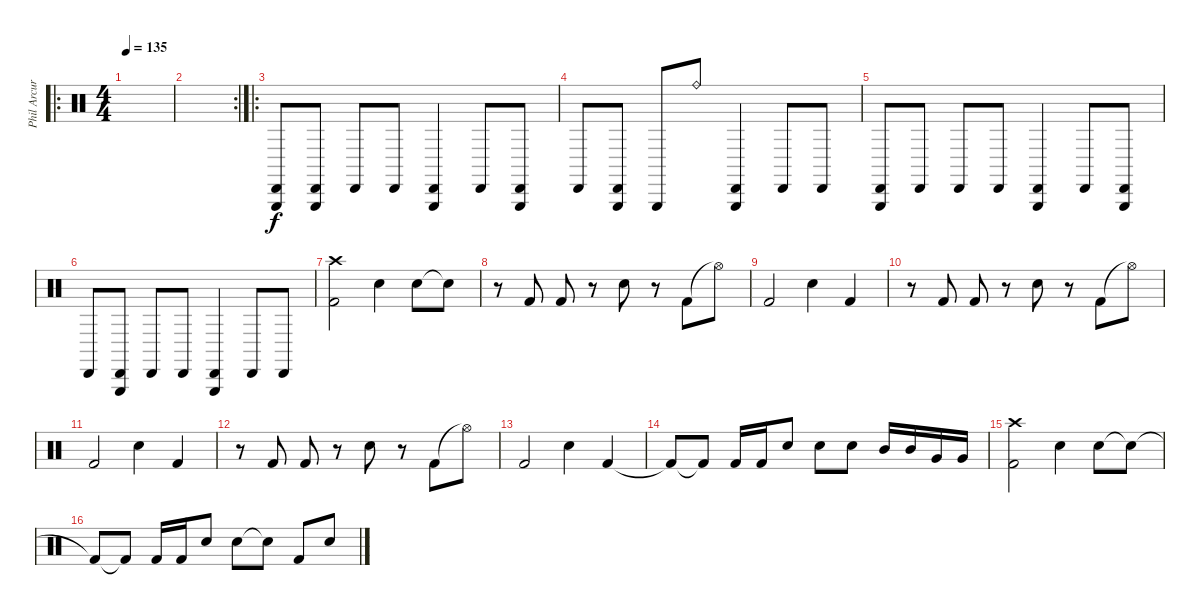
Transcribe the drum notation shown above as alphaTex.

\track ("Phil Arcuri drums" "Phil Arcur") {instrument percussion}
\staff {score}
\articulation defaults
\ro
\ts (4 4)
\tempo 135
\clef neutral
\ks c
|
\rc 2
|
\ro
("Triangle (hit)" "Cabasa (hit)").8 ("Triangle (hit)" "Cabasa (hit)").8 "Cabasa (hit)".8 "Cabasa (hit)".8 ("Triangle (hit)" "Cabasa (hit)").4 "Cabasa (hit)".8 ("Triangle (hit)" "Cabasa (hit)").8 |
"Cabasa (hit)".8 ("Triangle (hit)" "Cabasa (hit)").8 "Triangle (hit)".8 "Ride (bell)".8 ("Triangle (hit)" "Cabasa (hit)").4 "Cabasa (hit)".8 "Cabasa (hit)".8 |
("Triangle (hit)" "Cabasa (hit)").8 "Cabasa (hit)".8 "Cabasa (hit)".8 "Cabasa (hit)".8 ("Triangle (hit)" "Cabasa (hit)").4 "Cabasa (hit)".8 ("Triangle (hit)" "Cabasa (hit)").8 |
"Cabasa (hit)".8 ("Triangle (hit)" "Cabasa (hit)").8 "Cabasa (hit)".8 "Cabasa (hit)".8 ("Triangle (hit)" "Cabasa (hit)").4 "Cabasa (hit)".8 "Cabasa (hit)".8 |
("Kick (hit) 2" "Crash high (hit)").2 "Electric Snare (hit)".4 "Snare (hit) 2".8 "Snare (hit)"{t}.8 |
r.8 "Kick (hit) 2".8 "Kick (hit) 2".8 r.8 "Snare (hit) 2".8 r.8 "Kick (hit) 2".8 "Hi-Hat (open)"{t}.8 |
"Kick (hit) 2".2 "Electric Snare (hit)".4 "Kick (hit) 2".4 |
r.8 "Kick (hit) 2".8 "Kick (hit) 2".8 r.8 "Snare (hit) 2".8 r.8 "Kick (hit) 2".8 "Hi-Hat (open)"{t}.8 |
"Kick (hit) 2".2 "Electric Snare (hit)".4 "Kick (hit) 2".4 |
r.8 "Kick (hit) 2".8 "Kick (hit) 2".8 r.8 "Snare (hit) 2".8 r.8 "Kick (hit) 2".8 "Hi-Hat (open)"{t}.8 |
"Kick (hit) 2".2 "Electric Snare (hit)".4 "Kick (hit) 2".4 |
"Kick (hit) 2"{t}.8 "Kick (hit) 2"{t}.8 "Kick (hit) 2".16 "Kick (hit) 2".16 "Snare (hit) 2".8 "Electric Snare (hit)".8 "Electric Snare (hit)".8 "Mid Tom (hit)".16 "Mid Tom (hit)".16 "Very Low Tom (hit)".16 "Very Low Tom (hit)".16 |
("Kick (hit) 2" "Crash high (hit)").2 "Electric Snare (hit)".4 "Snare (hit) 2".8 "Snare (hit)"{t}.8 |
"Kick (hit) 2"{t}.8 "Kick (hit) 2"{t}.8 "Kick (hit) 2".16 "Kick (hit) 2".16 "Snare (hit) 2".8 "Electric Snare (hit)".8 "Snare (hit)"{t}.8 "Kick (hit) 2".8 "Electric Snare (hit)".8
